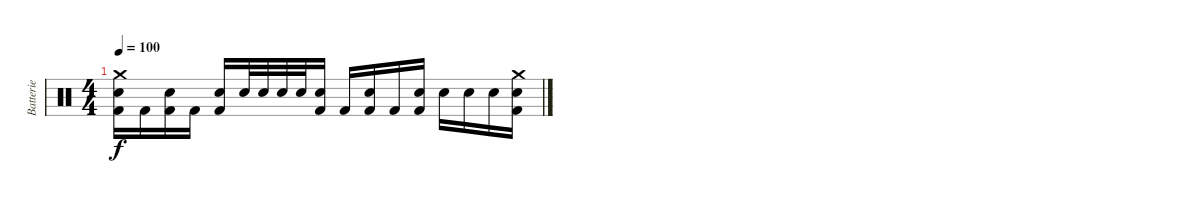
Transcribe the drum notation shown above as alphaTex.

\track ("Batterie" "Batterie") {instrument percussion}
\staff {score}
\articulation defaults
\ts (4 4)
\tempo 100
\clef neutral
\ks c
("Kick (hit) 2" "Electric Snare (hit)" "Crash medium (hit)").16{dy f} "Kick (hit) 2".16 ("Kick (hit) 2" "Electric Snare (hit)").16 "Kick (hit) 2".16 ("Kick (hit) 2" "Electric Snare (hit)").16 "Electric Snare (hit)".32 "Electric Snare (hit)".32 "Electric Snare (hit)".32 "Electric Snare (hit)".32 ("Kick (hit) 2" "Electric Snare (hit)").16 "Kick (hit) 2".16 ("Kick (hit) 2" "Electric Snare (hit)").16 "Kick (hit) 2".16 ("Kick (hit) 2" "Electric Snare (hit)").16 "Electric Snare (hit)".16 "Electric Snare (hit)".16 "Electric Snare (hit)".16 ("Kick (hit) 2" "Crash medium (hit)" "Electric Snare (hit)").16
